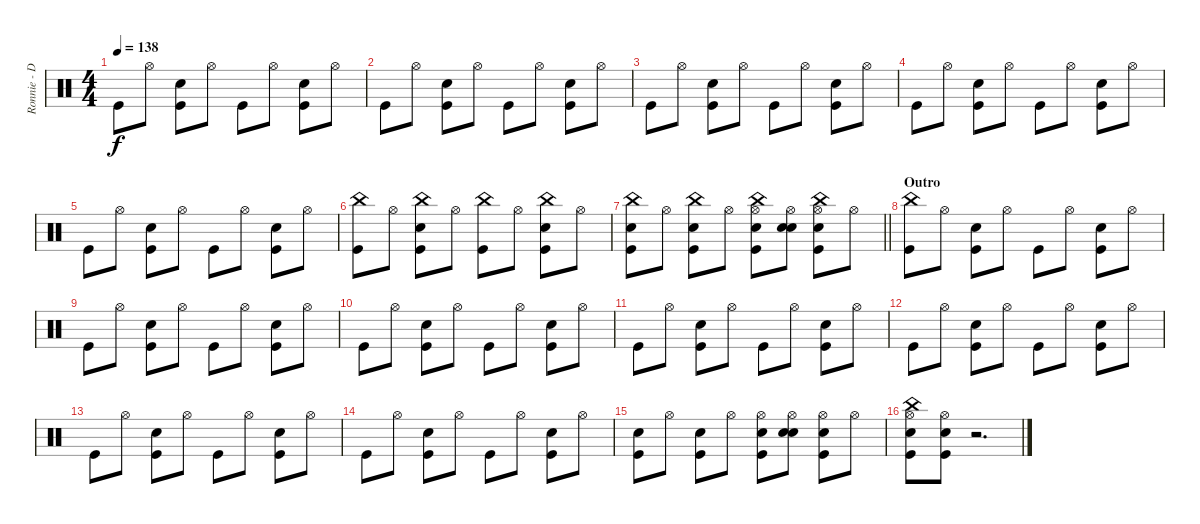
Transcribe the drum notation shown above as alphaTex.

\track ("Ronnie - Drums" "Ronnie - D") {instrument percussion}
\staff {score}
\articulation defaults
\ts (4 4)
\tempo 138
\clef neutral
\ks c "Kick (hit)".8{dy f} "Hi-Hat (open)".8
("Snare (hit) 2" "Kick (hit)").8 "Hi-Hat (open)".8 "Kick (hit)".8 "Hi-Hat (open)".8 ("Snare (hit) 2" "Kick (hit)").8 "Hi-Hat (open)".8 |
"Kick (hit)".8 "Hi-Hat (open)".8 ("Snare (hit) 2" "Kick (hit)").8 "Hi-Hat (open)".8 "Kick (hit)".8 "Hi-Hat (open)".8 ("Snare (hit) 2" "Kick (hit)").8 "Hi-Hat (open)".8 |
"Kick (hit)".8 "Hi-Hat (open)".8 ("Snare (hit) 2" "Kick (hit)").8 "Hi-Hat (open)".8 "Kick (hit)".8 "Hi-Hat (open)".8 ("Snare (hit) 2" "Kick (hit)").8 "Hi-Hat (open)".8 |
"Kick (hit)".8 "Hi-Hat (open)".8 ("Snare (hit) 2" "Kick (hit)").8 "Hi-Hat (open)".8 "Kick (hit)".8 "Hi-Hat (open)".8 ("Snare (hit) 2" "Kick (hit)").8 "Hi-Hat (open)".8 |
"Kick (hit)".8 "Hi-Hat (open)".8 ("Snare (hit) 2" "Kick (hit)").8 "Hi-Hat (open)".8 "Kick (hit)".8 "Hi-Hat (open)".8 ("Snare (hit) 2" "Kick (hit)").8 "Hi-Hat (open)".8 |
("China (hit)" "Kick (hit)").8 "Hi-Hat (open)".8 ("China (hit)" "Snare (hit) 2" "Kick (hit)").8 "Hi-Hat (open)".8 ("China (hit)" "Kick (hit)").8 "Hi-Hat (open)".8 ("China (hit)" "Snare (hit) 2" "Kick (hit)").8 "Hi-Hat (open)".8 |
\barLineRight lightlight
("China (hit)" "Snare (hit) 2" "Kick (hit)").8 "Hi-Hat (open)".8 ("China (hit)" "Snare (hit) 2" "Kick (hit)").8 "Hi-Hat (open)".8 ("China (hit)" "Hi-Hat (open)" "Snare (hit) 2" "Kick (hit)").8 ("Hi-Hat (open)" "Snare (hit) 2" "Snare (hit) 2").8 ("China (hit)" "Hi-Hat (open)" "Snare (hit) 2" "Kick (hit)").8 "Hi-Hat (open)".8 |
\section ("" "Outro")
("China (hit)" "Kick (hit)").8 "Hi-Hat (open)".8 ("Snare (hit) 2" "Kick (hit)").8 "Hi-Hat (open)".8 "Kick (hit)".8 "Hi-Hat (open)".8 ("Snare (hit) 2" "Kick (hit)").8 "Hi-Hat (open)".8 |
"Kick (hit)".8 "Hi-Hat (open)".8 ("Snare (hit) 2" "Kick (hit)").8 "Hi-Hat (open)".8 "Kick (hit)".8 "Hi-Hat (open)".8 ("Snare (hit) 2" "Kick (hit)").8 "Hi-Hat (open)".8 |
"Kick (hit)".8 "Hi-Hat (open)".8 ("Snare (hit) 2" "Kick (hit)").8 "Hi-Hat (open)".8 "Kick (hit)".8 "Hi-Hat (open)".8 ("Snare (hit) 2" "Kick (hit)").8 "Hi-Hat (open)".8 |
"Kick (hit)".8 "Hi-Hat (open)".8 ("Snare (hit) 2" "Kick (hit)").8 "Hi-Hat (open)".8 "Kick (hit)".8 "Hi-Hat (open)".8 ("Snare (hit) 2" "Kick (hit)").8 "Hi-Hat (open)".8 |
"Kick (hit)".8 "Hi-Hat (open)".8 ("Snare (hit) 2" "Kick (hit)").8 "Hi-Hat (open)".8 "Kick (hit)".8 "Hi-Hat (open)".8 ("Snare (hit) 2" "Kick (hit)").8 "Hi-Hat (open)".8 |
"Kick (hit)".8 "Hi-Hat (open)".8 ("Snare (hit) 2" "Kick (hit)").8 "Hi-Hat (open)".8 "Kick (hit)".8 "Hi-Hat (open)".8 ("Snare (hit) 2" "Kick (hit)").8 "Hi-Hat (open)".8 |
"Kick (hit)".8 "Hi-Hat (open)".8 ("Snare (hit) 2" "Kick (hit)").8 "Hi-Hat (open)".8 "Kick (hit)".8 "Hi-Hat (open)".8 ("Snare (hit) 2" "Kick (hit)").8 "Hi-Hat (open)".8 |
("Snare (hit) 2" "Kick (hit)").8 "Hi-Hat (open)".8 ("Snare (hit) 2" "Kick (hit)").8 "Hi-Hat (open)".8 ("Hi-Hat (open)" "Snare (hit) 2" "Kick (hit)").8 ("Hi-Hat (open)" "Snare (hit) 2" "Snare (hit) 2").8 ("Hi-Hat (open)" "Snare (hit) 2" "Kick (hit)").8 "Hi-Hat (open)".8 |
("China (hit)" "Hi-Hat (open)" "Snare (hit) 2" "Kick (hit)").8 ("Hi-Hat (open)" "Snare (hit) 2" "Kick (hit)").8 r.2{d}
